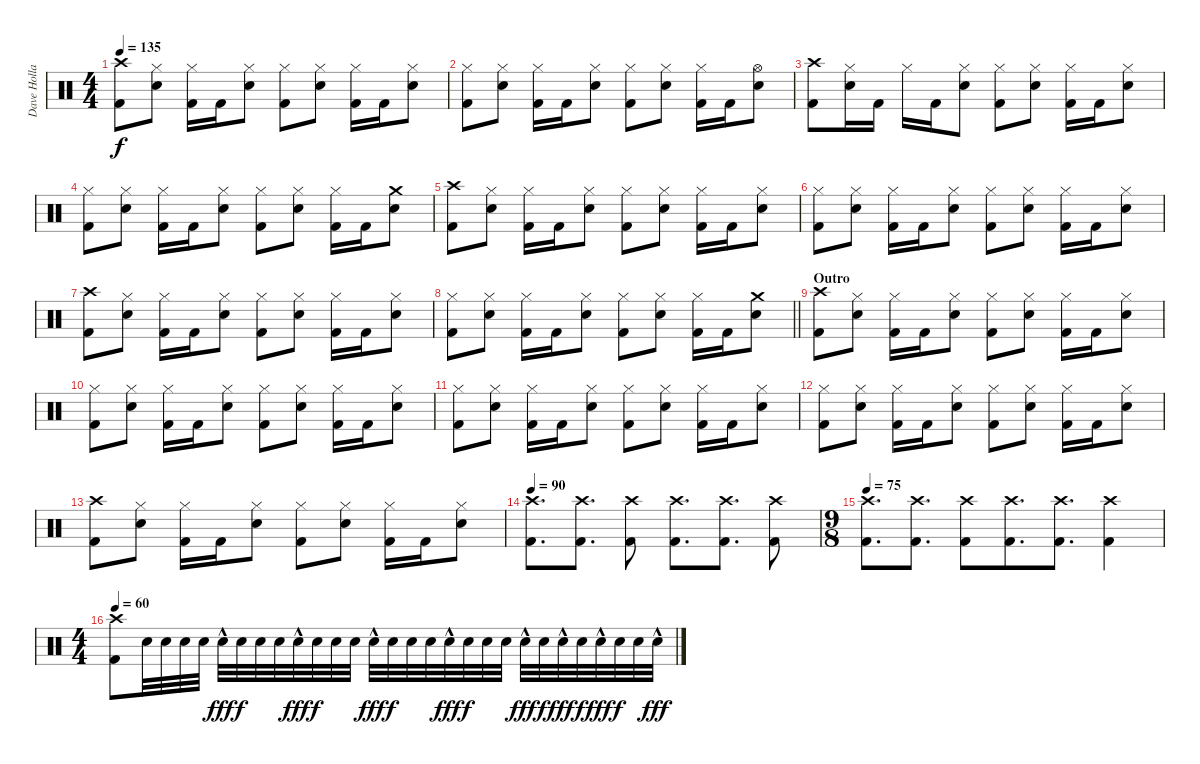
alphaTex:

\track ("Dave Holland" "Dave Holla") {instrument percussion}
\staff {score}
\articulation defaults
\ts (4 4)
\tempo 135
\clef neutral
\ks c
("Crash high (hit)" "Kick (hit) 2").8{dy f} ("Hi-Hat (closed)" "Snare (hit) 2").8 ("Hi-Hat (closed)" "Kick (hit) 2").16 "Kick (hit) 2".16 ("Hi-Hat (closed)" "Snare (hit) 2").8 ("Hi-Hat (closed)" "Kick (hit) 2").8 ("Hi-Hat (closed)" "Snare (hit) 2").8 ("Hi-Hat (closed)" "Kick (hit) 2").16 "Kick (hit) 2".16 ("Hi-Hat (closed)" "Snare (hit) 2").8 |
("Hi-Hat (closed)" "Kick (hit) 2").8 ("Hi-Hat (closed)" "Snare (hit) 2").8 ("Hi-Hat (closed)" "Kick (hit) 2").16 "Kick (hit) 2".16 ("Hi-Hat (closed)" "Snare (hit) 2").8 ("Hi-Hat (closed)" "Kick (hit) 2").8 ("Hi-Hat (closed)" "Snare (hit) 2").8 ("Hi-Hat (closed)" "Kick (hit) 2").16 "Kick (hit) 2".16 ("Hi-Hat (open)" "Snare (hit) 2").8 |
("Crash high (hit)" "Kick (hit) 2").8 ("Hi-Hat (closed)" "Snare (hit) 2").16 "Kick (hit) 2".16 "Hi-Hat (closed)".16 "Kick (hit) 2".16 ("Hi-Hat (closed)" "Snare (hit) 2").8 ("Hi-Hat (closed)" "Kick (hit) 2").8 ("Hi-Hat (closed)" "Snare (hit) 2").8 ("Hi-Hat (closed)" "Kick (hit) 2").16 "Kick (hit) 2".16 ("Hi-Hat (closed)" "Snare (hit) 2").8 |
("Hi-Hat (closed)" "Kick (hit) 2").8 ("Hi-Hat (closed)" "Snare (hit) 2").8 ("Hi-Hat (closed)" "Kick (hit) 2").16 "Kick (hit) 2".16 ("Hi-Hat (closed)" "Snare (hit) 2").8 ("Hi-Hat (closed)" "Kick (hit) 2").8 ("Hi-Hat (closed)" "Snare (hit) 2").8 ("Hi-Hat (closed)" "Kick (hit) 2").16 "Kick (hit) 2".16 ("Crash medium (hit)" "Snare (hit) 2").8 |
("Crash high (hit)" "Kick (hit) 2").8 ("Hi-Hat (closed)" "Snare (hit) 2").8 ("Hi-Hat (closed)" "Kick (hit) 2").16 "Kick (hit) 2".16 ("Hi-Hat (closed)" "Snare (hit) 2").8 ("Hi-Hat (closed)" "Kick (hit) 2").8 ("Hi-Hat (closed)" "Snare (hit) 2").8 ("Hi-Hat (closed)" "Kick (hit) 2").16 "Kick (hit) 2".16 ("Hi-Hat (closed)" "Snare (hit) 2").8 |
("Hi-Hat (closed)" "Kick (hit) 2").8 ("Hi-Hat (closed)" "Snare (hit) 2").8 ("Hi-Hat (closed)" "Kick (hit) 2").16 "Kick (hit) 2".16 ("Hi-Hat (closed)" "Snare (hit) 2").8 ("Hi-Hat (closed)" "Kick (hit) 2").8 ("Hi-Hat (closed)" "Snare (hit) 2").8 ("Hi-Hat (closed)" "Kick (hit) 2").16 "Kick (hit) 2".16 ("Hi-Hat (closed)" "Snare (hit) 2").8 |
("Crash high (hit)" "Kick (hit) 2").8 ("Hi-Hat (closed)" "Snare (hit) 2").8 ("Hi-Hat (closed)" "Kick (hit) 2").16 "Kick (hit) 2".16 ("Hi-Hat (closed)" "Snare (hit) 2").8 ("Hi-Hat (closed)" "Kick (hit) 2").8 ("Hi-Hat (closed)" "Snare (hit) 2").8 ("Hi-Hat (closed)" "Kick (hit) 2").16 "Kick (hit) 2".16 ("Hi-Hat (closed)" "Snare (hit) 2").8 |
\barLineRight lightlight
("Hi-Hat (closed)" "Kick (hit) 2").8 ("Hi-Hat (closed)" "Snare (hit) 2").8 ("Hi-Hat (closed)" "Kick (hit) 2").16 "Kick (hit) 2".16 ("Hi-Hat (closed)" "Snare (hit) 2").8 ("Hi-Hat (closed)" "Kick (hit) 2").8 ("Hi-Hat (closed)" "Snare (hit) 2").8 ("Hi-Hat (closed)" "Kick (hit) 2").16 "Kick (hit) 2".16 ("Crash medium (hit)" "Snare (hit) 2").8 |
\section ("" "Outro")
("Crash high (hit)" "Kick (hit) 2").8 ("Hi-Hat (closed)" "Snare (hit) 2").8 ("Hi-Hat (closed)" "Kick (hit) 2").16 "Kick (hit) 2".16 ("Hi-Hat (closed)" "Snare (hit) 2").8 ("Hi-Hat (closed)" "Kick (hit) 2").8 ("Hi-Hat (closed)" "Snare (hit) 2").8 ("Hi-Hat (closed)" "Kick (hit) 2").16 "Kick (hit) 2".16 ("Hi-Hat (closed)" "Snare (hit) 2").8 |
("Hi-Hat (closed)" "Kick (hit) 2").8 ("Hi-Hat (closed)" "Snare (hit) 2").8 ("Hi-Hat (closed)" "Kick (hit) 2").16 "Kick (hit) 2".16 ("Hi-Hat (closed)" "Snare (hit) 2").8 ("Hi-Hat (closed)" "Kick (hit) 2").8 ("Hi-Hat (closed)" "Snare (hit) 2").8 ("Hi-Hat (closed)" "Kick (hit) 2").16 "Kick (hit) 2".16 ("Hi-Hat (closed)" "Snare (hit) 2").8 |
("Hi-Hat (closed)" "Kick (hit) 2").8 ("Hi-Hat (closed)" "Snare (hit) 2").8 ("Hi-Hat (closed)" "Kick (hit) 2").16 "Kick (hit) 2".16 ("Hi-Hat (closed)" "Snare (hit) 2").8 ("Hi-Hat (closed)" "Kick (hit) 2").8 ("Hi-Hat (closed)" "Snare (hit) 2").8 ("Hi-Hat (closed)" "Kick (hit) 2").16 "Kick (hit) 2".16 ("Hi-Hat (closed)" "Snare (hit) 2").8 |
("Hi-Hat (closed)" "Kick (hit) 2").8 ("Hi-Hat (closed)" "Snare (hit) 2").8 ("Hi-Hat (closed)" "Kick (hit) 2").16 "Kick (hit) 2".16 ("Hi-Hat (closed)" "Snare (hit) 2").8 ("Hi-Hat (closed)" "Kick (hit) 2").8 ("Hi-Hat (closed)" "Snare (hit) 2").8 ("Hi-Hat (closed)" "Kick (hit) 2").16 "Kick (hit) 2".16 ("Hi-Hat (closed)" "Snare (hit) 2").8 |
("Crash high (hit)" "Kick (hit) 2").8 ("Hi-Hat (closed)" "Snare (hit) 2").8 ("Hi-Hat (closed)" "Kick (hit) 2").16 "Kick (hit) 2".16 ("Hi-Hat (closed)" "Snare (hit) 2").8 ("Hi-Hat (closed)" "Kick (hit) 2").8 ("Hi-Hat (closed)" "Snare (hit) 2").8 ("Hi-Hat (closed)" "Kick (hit) 2").16 "Kick (hit) 2".16 ("Hi-Hat (closed)" "Snare (hit) 2").8 |
\tempo 90
("Crash high (hit)" "Kick (hit) 2").8{d} ("Crash high (hit)" "Kick (hit) 2").8{d} ("Crash high (hit)" "Kick (hit) 2").8 ("Crash high (hit)" "Kick (hit) 2").8{d} ("Crash high (hit)" "Kick (hit) 2").8{d} ("Crash high (hit)" "Kick (hit) 2").8 |
\ts (9 8)
\tempo 75
("Crash high (hit)" "Kick (hit) 2").8{d} ("Crash high (hit)" "Kick (hit) 2").8{d} ("Crash high (hit)" "Kick (hit) 2").8 ("Crash high (hit)" "Kick (hit) 2").8{d} ("Crash high (hit)" "Kick (hit) 2").8{d} ("Crash high (hit)" "Kick (hit) 2").4 |
\ts (4 4)
\tempo 60
("Crash high (hit)" "Kick (hit) 2").8 "Snare (hit) 2".32 "Snare (hit) 2".32 "Snare (hit) 2".32 "Snare (hit) 2".32 "Snare (hit) 2"{hac}.32{dy fff} "Snare (hit) 2".32{dy f} "Snare (hit) 2".32 "Snare (hit) 2".32 "Snare (hit) 2"{hac}.32{dy fff} "Snare (hit) 2".32{dy f} "Snare (hit) 2".32 "Snare (hit) 2".32 "Snare (hit) 2"{hac}.32{dy fff} "Snare (hit) 2".32{dy f} "Snare (hit) 2".32 "Snare (hit) 2".32 "Snare (hit) 2"{hac}.32{dy fff} "Snare (hit) 2".32{dy f} "Snare (hit) 2".32 "Snare (hit) 2".32 "Snare (hit) 2"{hac}.32{dy fff} "Snare (hit) 2".32{dy f} "Snare (hit) 2"{hac}.32{dy fff} "Snare (hit) 2".32{dy f} "Snare (hit) 2"{hac}.32{dy fff} "Snare (hit) 2".32{dy f} "Snare (hit) 2".32 "Snare (hit) 2"{hac}.32{dy fff}
